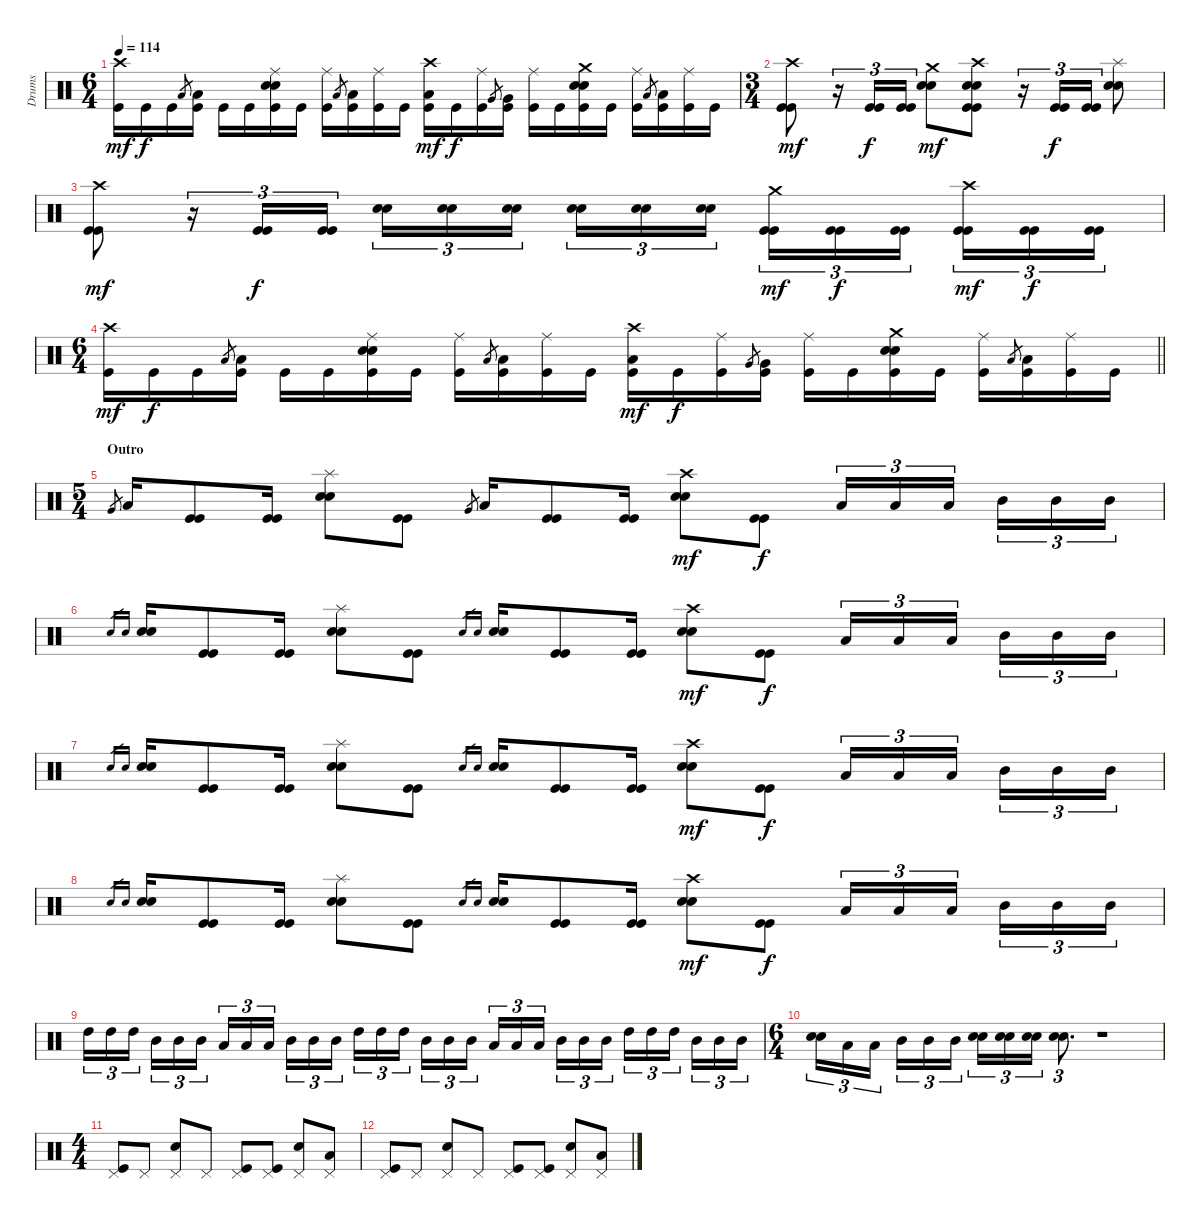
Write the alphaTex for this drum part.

\track ("Drums" "Drums") {instrument percussion}
\staff {score}
\articulation defaults
\ts (6 4)
\tempo 114
\clef neutral
\ks c
("Kick (hit)" "Crash high (hit)").16{dy mf} "Kick (hit)".16{dy f} "Kick (hit)".16 "Low Tom (hit)".8{gr} ("Kick (hit)" "Low Tom (hit)").16 "Kick (hit)".16 "Kick (hit)".16 ("Kick (hit)" "Snare (hit) 2" "Electric Snare (hit)" "Ride (middle)").16 "Kick (hit)".16 ("Kick (hit)" "Ride (middle)").16 "Low Tom (hit)".8{gr} ("Kick (hit)" "Low Tom (hit)").16 ("Kick (hit)" "Ride (middle)").16 "Kick (hit)".16 ("Kick (hit)" "Low Floor Tom (hit)" "Crash high (hit)").16{dy mf} "Kick (hit)".16{dy f} ("Kick (hit)" "Ride (middle)").16 "Very Low Tom (hit)".8{gr} ("Kick (hit)" "Very Low Tom (hit)").16 ("Kick (hit)" "Ride (middle)").16 "Kick (hit)".16 ("Kick (hit)" "Snare (hit) 2" "Electric Snare (hit)" "Crash medium (hit)").16 "Kick (hit)".16 ("Kick (hit)" "Ride (middle)").16 "Low Tom (hit)".8{gr} ("Kick (hit)" "Low Tom (hit)").16 ("Kick (hit)" "Ride (middle)").16 "Kick (hit)".16 |
\ts (3 4)
("Kick (hit)" "Kick (hit)" "Crash high (hit)").8{dy mf} r.16{tu (3 2)} ("Kick (hit)" "Kick (hit)").16{tu (3 2) dy f} ("Kick (hit)" "Kick (hit)").16{tu (3 2)} ("Snare (hit) 2" "Electric Snare (hit)" "Crash medium (hit)").8{dy mf} ("Kick (hit)" "Kick (hit)" "Snare (hit) 2" "Electric Snare (hit)" "Crash high (hit)").8 r.16{tu (3 2)} ("Kick (hit)" "Kick (hit)").16{tu (3 2) dy f} ("Kick (hit)" "Kick (hit)").16{tu (3 2)} ("Snare (hit) 2" "Electric Snare (hit)" "Splash (hit)").8 |
("Kick (hit)" "Kick (hit)" "Crash high (hit)").8{dy mf} r.16{tu (3 2)} ("Kick (hit)" "Kick (hit)").16{tu (3 2) dy f} ("Kick (hit)" "Kick (hit)").16{tu (3 2)} ("Snare (hit) 2" "Electric Snare (hit)").16{tu (3 2)} ("Snare (hit) 2" "Electric Snare (hit)").16{tu (3 2)} ("Snare (hit) 2" "Electric Snare (hit)").16{tu (3 2)} ("Snare (hit) 2" "Electric Snare (hit)").16{tu (3 2)} ("Snare (hit) 2" "Electric Snare (hit)").16{tu (3 2)} ("Snare (hit) 2" "Electric Snare (hit)").16{tu (3 2)} ("Kick (hit)" "Kick (hit)" "Crash medium (hit)").16{tu (3 2) dy mf} ("Kick (hit)" "Kick (hit)").16{tu (3 2) dy f} ("Kick (hit)" "Kick (hit)").16{tu (3 2)} ("Kick (hit)" "Kick (hit)" "Crash high (hit)").16{tu (3 2) dy mf} ("Kick (hit)" "Kick (hit)").16{tu (3 2) dy f} ("Kick (hit)" "Kick (hit)").16{tu (3 2)} |
\ts (6 4)
\barLineRight lightlight
("Kick (hit)" "Crash high (hit)").16{dy mf} "Kick (hit)".16{dy f} "Kick (hit)".16 "Low Tom (hit)".8{gr} ("Kick (hit)" "Low Tom (hit)").16 "Kick (hit)".16 "Kick (hit)".16 ("Kick (hit)" "Snare (hit) 2" "Electric Snare (hit)" "Ride (middle)").16 "Kick (hit)".16 ("Kick (hit)" "Ride (middle)").16 "Low Tom (hit)".8{gr} ("Kick (hit)" "Low Tom (hit)").16 ("Kick (hit)" "Ride (middle)").16 "Kick (hit)".16 ("Kick (hit)" "Low Floor Tom (hit)" "Crash high (hit)").16{dy mf} "Kick (hit)".16{dy f} ("Kick (hit)" "Ride (middle)").16 "Very Low Tom (hit)".8{gr} ("Kick (hit)" "Very Low Tom (hit)").16 ("Kick (hit)" "Ride (middle)").16 "Kick (hit)".16 ("Kick (hit)" "Snare (hit) 2" "Electric Snare (hit)" "Crash medium (hit)").16 "Kick (hit)".16 ("Kick (hit)" "Ride (middle)").16 "Low Tom (hit)".8{gr} ("Kick (hit)" "Low Tom (hit)").16 ("Kick (hit)" "Ride (middle)").16 "Kick (hit)".16 |
\ts (5 4)
\section ("" "Outro")
"Very Low Tom (hit)".8{gr} "Low Tom (hit)".16 ("Kick (hit)" "Kick (hit)").8 ("Kick (hit)" "Kick (hit)").16 ("Snare (hit) 2" "Electric Snare (hit)" "Splash (hit)").8 ("Kick (hit)" "Kick (hit)").8 "Very Low Tom (hit)".8{gr} "Low Tom (hit)".16 ("Kick (hit)" "Kick (hit)").8 ("Kick (hit)" "Kick (hit)").16 ("Snare (hit) 2" "Electric Snare (hit)" "Crash high (hit)").8{dy mf} ("Kick (hit)" "Kick (hit)").8{dy f} "Low Tom (hit)".16{tu (3 2)} "Low Tom (hit)".16{tu (3 2)} "Low Tom (hit)".16{tu (3 2)} "Mid Tom (hit)".16{tu (3 2)} "Mid Tom (hit)".16{tu (3 2)} "Mid Tom (hit)".16{tu (3 2)} |
"Snare (hit) 2".16{gr} "Electric Snare (hit)".16{gr} ("Snare (hit) 2" "Electric Snare (hit)").16 ("Kick (hit)" "Kick (hit)").8 ("Kick (hit)" "Kick (hit)").16 ("Snare (hit) 2" "Electric Snare (hit)" "Splash (hit)").8 ("Kick (hit)" "Kick (hit)").8 "Snare (hit) 2".16{gr} "Electric Snare (hit)".16{gr} ("Snare (hit) 2" "Electric Snare (hit)").16 ("Kick (hit)" "Kick (hit)").8 ("Kick (hit)" "Kick (hit)").16 ("Snare (hit) 2" "Electric Snare (hit)" "Crash high (hit)").8{dy mf} ("Kick (hit)" "Kick (hit)").8{dy f} "Low Tom (hit)".16{tu (3 2)} "Low Tom (hit)".16{tu (3 2)} "Low Tom (hit)".16{tu (3 2)} "Mid Tom (hit)".16{tu (3 2)} "Mid Tom (hit)".16{tu (3 2)} "Mid Tom (hit)".16{tu (3 2)} |
"Snare (hit) 2".16{gr} "Electric Snare (hit)".16{gr} ("Snare (hit) 2" "Electric Snare (hit)").16 ("Kick (hit)" "Kick (hit)").8 ("Kick (hit)" "Kick (hit)").16 ("Snare (hit) 2" "Electric Snare (hit)" "Splash (hit)").8 ("Kick (hit)" "Kick (hit)").8 "Snare (hit) 2".16{gr} "Electric Snare (hit)".16{gr} ("Snare (hit) 2" "Electric Snare (hit)").16 ("Kick (hit)" "Kick (hit)").8 ("Kick (hit)" "Kick (hit)").16 ("Snare (hit) 2" "Electric Snare (hit)" "Crash high (hit)").8{dy mf} ("Kick (hit)" "Kick (hit)").8{dy f} "Low Tom (hit)".16{tu (3 2)} "Low Tom (hit)".16{tu (3 2)} "Low Tom (hit)".16{tu (3 2)} "Mid Tom (hit)".16{tu (3 2)} "Mid Tom (hit)".16{tu (3 2)} "Mid Tom (hit)".16{tu (3 2)} |
"Snare (hit) 2".16{gr} "Electric Snare (hit)".16{gr} ("Snare (hit) 2" "Electric Snare (hit)").16 ("Kick (hit)" "Kick (hit)").8 ("Kick (hit)" "Kick (hit)").16 ("Snare (hit) 2" "Electric Snare (hit)" "Splash (hit)").8 ("Kick (hit)" "Kick (hit)").8 "Snare (hit) 2".16{gr} "Electric Snare (hit)".16{gr} ("Snare (hit) 2" "Electric Snare (hit)").16 ("Kick (hit)" "Kick (hit)").8 ("Kick (hit)" "Kick (hit)").16 ("Snare (hit) 2" "Electric Snare (hit)" "Crash high (hit)").8{dy mf} ("Kick (hit)" "Kick (hit)").8{dy f} "Low Tom (hit)".16{tu (3 2)} "Low Tom (hit)".16{tu (3 2)} "Low Tom (hit)".16{tu (3 2)} "Mid Tom (hit)".16{tu (3 2)} "Mid Tom (hit)".16{tu (3 2)} "Mid Tom (hit)".16{tu (3 2)} |
"High Tom (hit)".16{tu (3 2)} "High Tom (hit)".16{tu (3 2)} "High Tom (hit)".16{tu (3 2)} "Mid Tom (hit)".16{tu (3 2)} "Mid Tom (hit)".16{tu (3 2)} "Mid Tom (hit)".16{tu (3 2)} "Low Tom (hit)".16{tu (3 2)} "Low Tom (hit)".16{tu (3 2)} "Low Tom (hit)".16{tu (3 2)} "Mid Tom (hit)".16{tu (3 2)} "Mid Tom (hit)".16{tu (3 2)} "Mid Tom (hit)".16{tu (3 2)} "High Tom (hit)".16{tu (3 2)} "High Tom (hit)".16{tu (3 2)} "High Tom (hit)".16{tu (3 2)} "Mid Tom (hit)".16{tu (3 2)} "Mid Tom (hit)".16{tu (3 2)} "Mid Tom (hit)".16{tu (3 2)} "Low Tom (hit)".16{tu (3 2)} "Low Tom (hit)".16{tu (3 2)} "Low Tom (hit)".16{tu (3 2)} "Mid Tom (hit)".16{tu (3 2)} "Mid Tom (hit)".16{tu (3 2)} "Mid Tom (hit)".16{tu (3 2)} "High Tom (hit)".16{tu (3 2)} "High Tom (hit)".16{tu (3 2)} "High Tom (hit)".16{tu (3 2)} "Mid Tom (hit)".16{tu (3 2)} "Mid Tom (hit)".16{tu (3 2)} "Mid Tom (hit)".16{tu (3 2)} |
\ts (6 4)
("Snare (hit) 2" "Electric Snare (hit)").16{tu (3 2)} "Low Tom (hit)".16{tu (3 2)} "Low Tom (hit)".16{tu (3 2)} "Mid Tom (hit)".16{tu (3 2)} "Mid Tom (hit)".16{tu (3 2)} "Mid Tom (hit)".16{tu (3 2)} ("Snare (hit) 2" "Electric Snare (hit)").16{tu (3 2)} ("Snare (hit) 2" "Electric Snare (hit)").16{tu (3 2)} ("Snare (hit) 2" "Electric Snare (hit)").16{tu (3 2)} ("Snare (hit) 2" "Electric Snare (hit)").8{d tu (3 2)} r.1 |
\ts (4 4)
("Kick (hit)" "Pedal Hi-Hat (hit)").8{volume 0} "Pedal Hi-Hat (hit)".8 ("Snare (hit) 2" "Pedal Hi-Hat (hit)").8 "Pedal Hi-Hat (hit)".8 ("Kick (hit)" "Pedal Hi-Hat (hit)").8 ("Kick (hit)" "Pedal Hi-Hat (hit)").8 ("Snare (hit) 2" "Pedal Hi-Hat (hit)").8 ("Low Tom (hit)" "Pedal Hi-Hat (hit)").8 |
("Kick (hit)" "Pedal Hi-Hat (hit)").8{volume 0} "Pedal Hi-Hat (hit)".8 ("Snare (hit) 2" "Pedal Hi-Hat (hit)").8 "Pedal Hi-Hat (hit)".8 ("Kick (hit)" "Pedal Hi-Hat (hit)").8 ("Kick (hit)" "Pedal Hi-Hat (hit)").8 ("Snare (hit) 2" "Pedal Hi-Hat (hit)").8 ("Low Tom (hit)" "Pedal Hi-Hat (hit)").8
